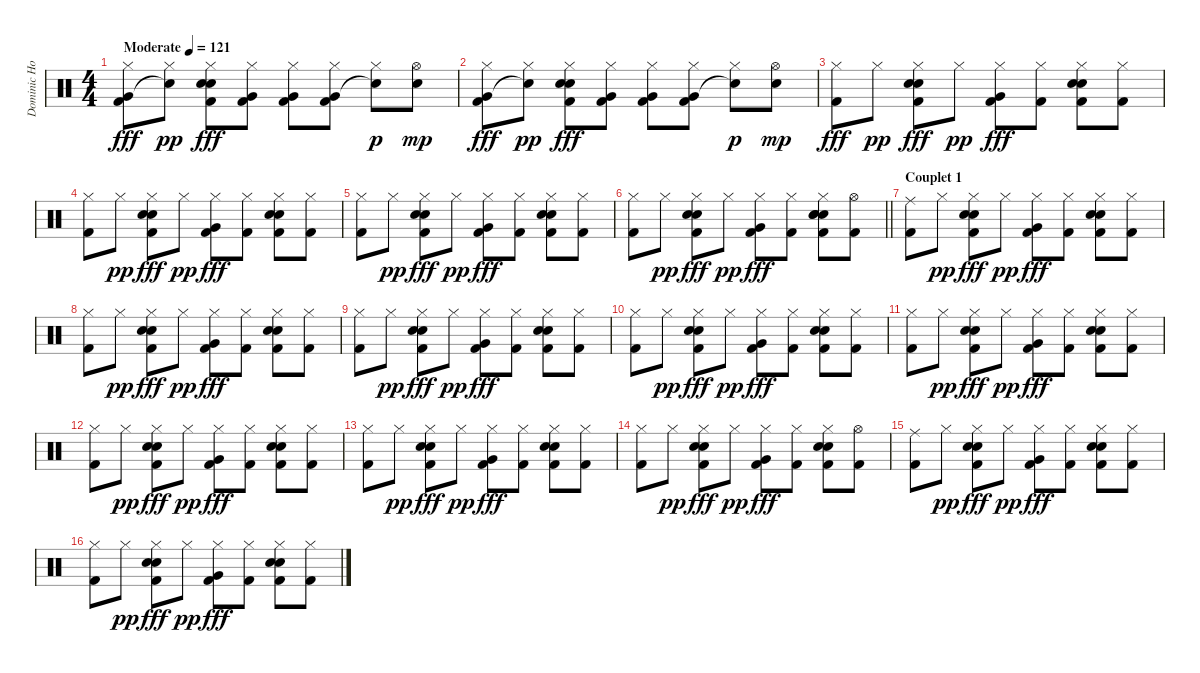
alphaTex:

\track ("Dominic Howard" "Dominic Ho") {instrument percussion}
\staff {score}
\articulation defaults
\ts (4 4)
\tempo (121 "Moderate")
\clef neutral
\ks c
("Hi-Hat (closed)" "Very Low Tom (hit)" "Kick (hit) 2").8{dy fff} ("Hi-Hat (closed)" "Snare (hit)"{t}).8{dy pp} ("Hi-Hat (closed)" "Electric Snare (hit)" "Hand Clap (hit)" "Kick (hit) 2").8{dy fff} ("Hi-Hat (closed)" "Very Low Tom (hit)" "Kick (hit) 2").8 ("Hi-Hat (closed)" "Very Low Tom (hit)" "Kick (hit) 2").8 ("Hi-Hat (closed)" "Very Low Tom (hit)" "Kick (hit) 2").8 ("Hi-Hat (closed)" "Snare (hit)"{t}).8{dy p} ("Hi-Hat (open)" "Electric Snare (hit)").8{dy mp} |
("Hi-Hat (closed)" "Very Low Tom (hit)" "Kick (hit) 2").8{dy fff} ("Hi-Hat (closed)" "Snare (hit)"{t}).8{dy pp} ("Hi-Hat (closed)" "Electric Snare (hit)" "Hand Clap (hit)" "Kick (hit) 2").8{dy fff} ("Hi-Hat (closed)" "Very Low Tom (hit)" "Kick (hit) 2").8 ("Hi-Hat (closed)" "Very Low Tom (hit)" "Kick (hit) 2").8 ("Hi-Hat (closed)" "Very Low Tom (hit)" "Kick (hit) 2").8 ("Hi-Hat (closed)" "Snare (hit)"{t}).8{dy p} ("Hi-Hat (open)" "Electric Snare (hit)").8{dy mp} |
("Hi-Hat (closed)" "Kick (hit) 2").8{dy fff} "Hi-Hat (closed)".8{dy pp} ("Hi-Hat (closed)" "Electric Snare (hit)" "Hand Clap (hit)" "Kick (hit) 2").8{dy fff} "Hi-Hat (closed)".8{dy pp} ("Hi-Hat (closed)" "Very Low Tom (hit)" "Kick (hit) 2").8{dy fff} ("Hi-Hat (closed)" "Kick (hit) 2").8 ("Hi-Hat (closed)" "Electric Snare (hit)" "Hand Clap (hit)" "Kick (hit) 2").8 ("Hi-Hat (closed)" "Kick (hit) 2").8 |
("Hi-Hat (closed)" "Kick (hit) 2").8 "Hi-Hat (closed)".8{dy pp} ("Hi-Hat (closed)" "Electric Snare (hit)" "Hand Clap (hit)" "Kick (hit) 2").8{dy fff} "Hi-Hat (closed)".8{dy pp} ("Hi-Hat (closed)" "Very Low Tom (hit)" "Kick (hit) 2").8{dy fff} ("Hi-Hat (closed)" "Kick (hit) 2").8 ("Hi-Hat (closed)" "Electric Snare (hit)" "Hand Clap (hit)" "Kick (hit) 2").8 ("Hi-Hat (closed)" "Kick (hit) 2").8 |
("Hi-Hat (closed)" "Kick (hit) 2").8 "Hi-Hat (closed)".8{dy pp} ("Hi-Hat (closed)" "Electric Snare (hit)" "Hand Clap (hit)" "Kick (hit) 2").8{dy fff} "Hi-Hat (closed)".8{dy pp} ("Hi-Hat (closed)" "Very Low Tom (hit)" "Kick (hit) 2").8{dy fff} ("Hi-Hat (closed)" "Kick (hit) 2").8 ("Hi-Hat (closed)" "Electric Snare (hit)" "Hand Clap (hit)" "Kick (hit) 2").8 ("Hi-Hat (closed)" "Kick (hit) 2").8 |
\barLineRight lightlight
("Hi-Hat (closed)" "Kick (hit) 2").8 "Hi-Hat (closed)".8{dy pp} ("Hi-Hat (closed)" "Electric Snare (hit)" "Hand Clap (hit)" "Kick (hit) 2").8{dy fff} "Hi-Hat (closed)".8{dy pp} ("Hi-Hat (closed)" "Very Low Tom (hit)" "Kick (hit) 2").8{dy fff} ("Hi-Hat (closed)" "Kick (hit) 2").8 ("Hi-Hat (closed)" "Electric Snare (hit)" "Electric Snare (hit)" "Hand Clap (hit)" "Kick (hit) 2").8 ("Hi-Hat (open)" "Kick (hit) 2").8 |
\section ("" "Couplet 1")
("Ride (middle)" "Kick (hit) 2").8 "Hi-Hat (closed)".8{dy pp} ("Hi-Hat (closed)" "Electric Snare (hit)" "Hand Clap (hit)" "Kick (hit) 2").8{dy fff} "Hi-Hat (closed)".8{dy pp} ("Hi-Hat (closed)" "Very Low Tom (hit)" "Kick (hit) 2").8{dy fff} ("Hi-Hat (closed)" "Kick (hit) 2").8 ("Hi-Hat (closed)" "Electric Snare (hit)" "Hand Clap (hit)" "Kick (hit) 2").8 ("Hi-Hat (closed)" "Kick (hit) 2").8 |
("Hi-Hat (closed)" "Kick (hit) 2").8 "Hi-Hat (closed)".8{dy pp} ("Hi-Hat (closed)" "Electric Snare (hit)" "Hand Clap (hit)" "Kick (hit) 2").8{dy fff} "Hi-Hat (closed)".8{dy pp} ("Hi-Hat (closed)" "Very Low Tom (hit)" "Kick (hit) 2").8{dy fff} ("Hi-Hat (closed)" "Kick (hit) 2").8 ("Hi-Hat (closed)" "Electric Snare (hit)" "Hand Clap (hit)" "Kick (hit) 2").8 ("Hi-Hat (closed)" "Kick (hit) 2").8 |
("Hi-Hat (closed)" "Kick (hit) 2").8 "Hi-Hat (closed)".8{dy pp} ("Hi-Hat (closed)" "Electric Snare (hit)" "Hand Clap (hit)" "Kick (hit) 2").8{dy fff} "Hi-Hat (closed)".8{dy pp} ("Hi-Hat (closed)" "Very Low Tom (hit)" "Kick (hit) 2").8{dy fff} ("Hi-Hat (closed)" "Kick (hit) 2").8 ("Hi-Hat (closed)" "Electric Snare (hit)" "Hand Clap (hit)" "Kick (hit) 2").8 ("Hi-Hat (closed)" "Kick (hit) 2").8 |
("Hi-Hat (closed)" "Kick (hit) 2").8 "Hi-Hat (closed)".8{dy pp} ("Hi-Hat (closed)" "Electric Snare (hit)" "Hand Clap (hit)" "Kick (hit) 2").8{dy fff} "Hi-Hat (closed)".8{dy pp} ("Hi-Hat (closed)" "Very Low Tom (hit)" "Kick (hit) 2").8{dy fff} ("Hi-Hat (closed)" "Kick (hit) 2").8 ("Hi-Hat (closed)" "Electric Snare (hit)" "Hand Clap (hit)" "Kick (hit) 2").8 ("Hi-Hat (closed)" "Kick (hit) 2").8 |
("Hi-Hat (closed)" "Kick (hit) 2").8 "Hi-Hat (closed)".8{dy pp} ("Hi-Hat (closed)" "Electric Snare (hit)" "Hand Clap (hit)" "Kick (hit) 2").8{dy fff} "Hi-Hat (closed)".8{dy pp} ("Hi-Hat (closed)" "Very Low Tom (hit)" "Kick (hit) 2").8{dy fff} ("Hi-Hat (closed)" "Kick (hit) 2").8 ("Hi-Hat (closed)" "Electric Snare (hit)" "Hand Clap (hit)" "Kick (hit) 2").8 ("Hi-Hat (closed)" "Kick (hit) 2").8 |
("Hi-Hat (closed)" "Kick (hit) 2").8 "Hi-Hat (closed)".8{dy pp} ("Hi-Hat (closed)" "Electric Snare (hit)" "Hand Clap (hit)" "Kick (hit) 2").8{dy fff} "Hi-Hat (closed)".8{dy pp} ("Hi-Hat (closed)" "Very Low Tom (hit)" "Kick (hit) 2").8{dy fff} ("Hi-Hat (closed)" "Kick (hit) 2").8 ("Hi-Hat (closed)" "Electric Snare (hit)" "Hand Clap (hit)" "Kick (hit) 2").8 ("Hi-Hat (closed)" "Kick (hit) 2").8 |
("Hi-Hat (closed)" "Kick (hit) 2").8 "Hi-Hat (closed)".8{dy pp} ("Hi-Hat (closed)" "Electric Snare (hit)" "Hand Clap (hit)" "Kick (hit) 2").8{dy fff} "Hi-Hat (closed)".8{dy pp} ("Hi-Hat (closed)" "Very Low Tom (hit)" "Kick (hit) 2").8{dy fff} ("Hi-Hat (closed)" "Kick (hit) 2").8 ("Hi-Hat (closed)" "Electric Snare (hit)" "Hand Clap (hit)" "Kick (hit) 2").8 ("Hi-Hat (closed)" "Kick (hit) 2").8 |
("Hi-Hat (closed)" "Kick (hit) 2").8 "Hi-Hat (closed)".8{dy pp} ("Hi-Hat (closed)" "Electric Snare (hit)" "Hand Clap (hit)" "Kick (hit) 2").8{dy fff} "Hi-Hat (closed)".8{dy pp} ("Hi-Hat (closed)" "Very Low Tom (hit)" "Kick (hit) 2").8{dy fff} ("Hi-Hat (closed)" "Kick (hit) 2").8 ("Hi-Hat (closed)" "Electric Snare (hit)" "Hand Clap (hit)" "Kick (hit) 2").8 ("Hi-Hat (open)" "Kick (hit) 2").8 |
("Ride (middle)" "Kick (hit) 2").8 "Hi-Hat (closed)".8{dy pp} ("Hi-Hat (closed)" "Electric Snare (hit)" "Hand Clap (hit)" "Kick (hit) 2").8{dy fff} "Hi-Hat (closed)".8{dy pp} ("Hi-Hat (closed)" "Very Low Tom (hit)" "Kick (hit) 2").8{dy fff} ("Hi-Hat (closed)" "Kick (hit) 2").8 ("Hi-Hat (closed)" "Electric Snare (hit)" "Hand Clap (hit)" "Kick (hit) 2").8 ("Hi-Hat (closed)" "Kick (hit) 2").8 |
("Hi-Hat (closed)" "Kick (hit) 2").8 "Hi-Hat (closed)".8{dy pp} ("Hi-Hat (closed)" "Electric Snare (hit)" "Hand Clap (hit)" "Kick (hit) 2").8{dy fff} "Hi-Hat (closed)".8{dy pp} ("Hi-Hat (closed)" "Very Low Tom (hit)" "Kick (hit) 2").8{dy fff} ("Hi-Hat (closed)" "Kick (hit) 2").8 ("Hi-Hat (closed)" "Electric Snare (hit)" "Hand Clap (hit)" "Kick (hit) 2").8 ("Hi-Hat (closed)" "Kick (hit) 2").8
